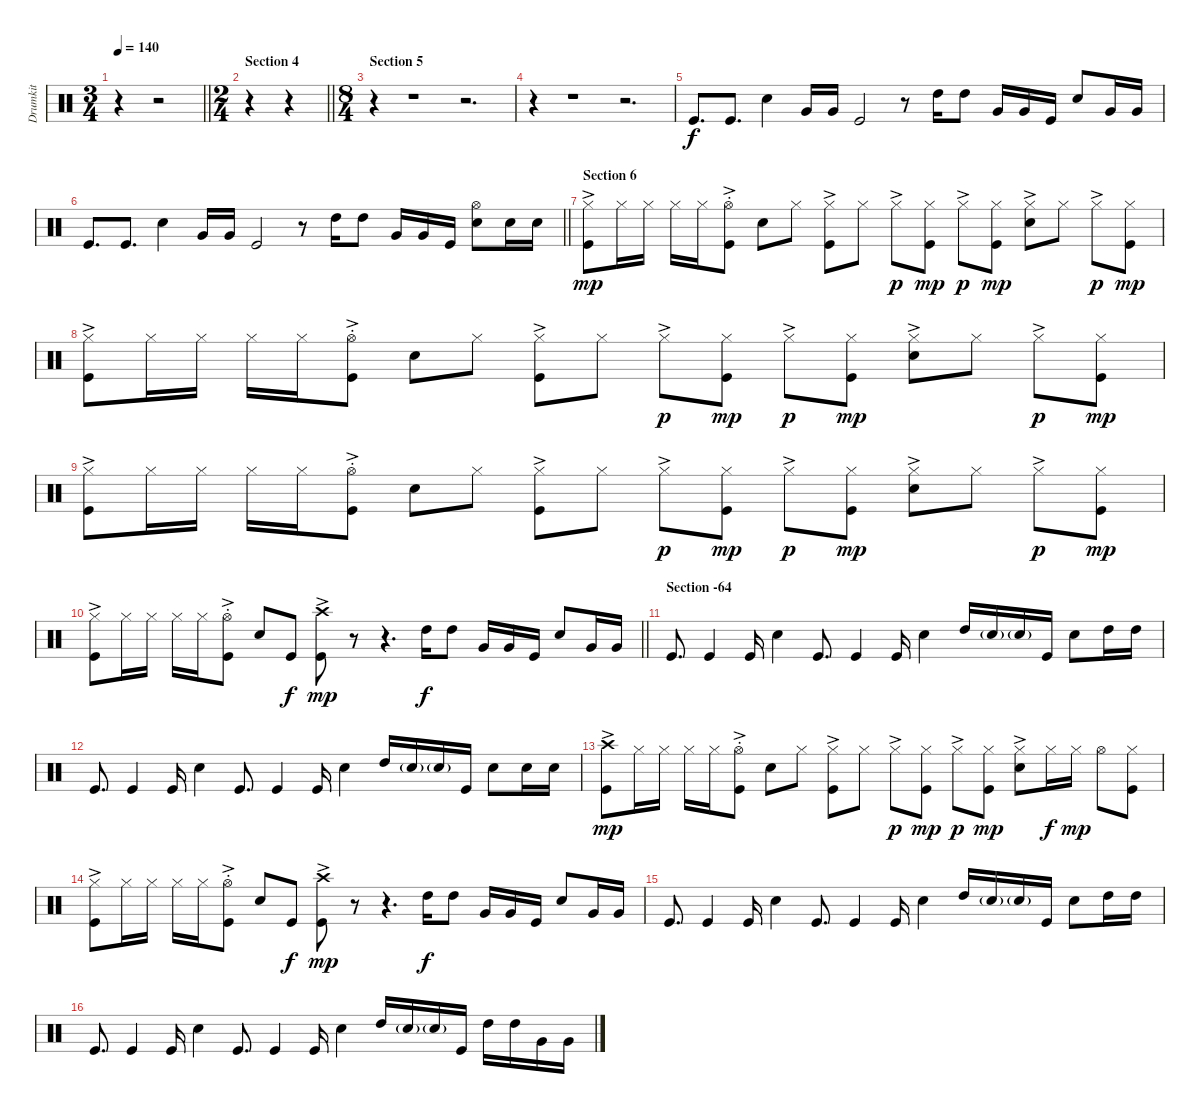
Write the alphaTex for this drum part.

\track ("Drumkit" "Drumkit") {instrument percussion}
\staff {score}
\articulation defaults
\ts (3 4)
\tempo 140
\clef neutral
\barLineRight lightlight
\ks c
r.4{dy f} r.2 |
\ts (2 4)
\section ("" "Section 4")
\barLineRight lightlight
r.4 r.4 |
\ts (8 4)
\section ("" "Section 5")
r.4 r.1 r.2{d} |
r.4 r.1 r.2{d} |
"Kick (hit)".8{d} "Kick (hit)".8{d} "Snare (hit) 2".4 "Very Low Tom (hit)".16 "Very Low Tom (hit)".16 "Kick (hit)".2 r.8 "High Tom (hit)".16 "High Tom (hit)".8 "Very Low Tom (hit)".16 "Very Low Tom (hit)".16 "Kick (hit)".16 "Snare (hit) 2".8 "Very Low Tom (hit)".16 "Very Low Tom (hit)".16 |
\barLineRight lightlight "Kick (hit)".8{d} "Kick (hit)".8{d} "Snare (hit) 2".4 "Very Low Tom (hit)".16 "Very Low Tom (hit)".16 "Kick (hit)".2
r.8 "High Tom (hit)".16 "High Tom (hit)".8 "Very Low Tom (hit)".16 "Very Low Tom (hit)".16 "Kick (hit)".16 ("Snare (hit) 2" "Hi-Hat (open)").8 "Snare (hit) 2".16 "Snare (hit) 2".16 |
\section ("" "Section 6")
("Kick (hit)" "Hi-Hat (closed)"{ac}).8{dy mp} "Hi-Hat (closed)".16 "Hi-Hat (closed)".16 "Hi-Hat (closed)".16 "Hi-Hat (closed)".16 ("Kick (hit)" "Hi-Hat (open)"{ac st}).8 "Snare (hit) 2".8 "Hi-Hat (closed)".8 ("Kick (hit)" "Hi-Hat (closed)"{ac}).8 "Hi-Hat (closed)".8 "Hi-Hat (closed)"{ac}.8{dy p} ("Kick (hit)" "Hi-Hat (closed)").8{dy mp} "Hi-Hat (closed)"{ac}.8{dy p} ("Kick (hit)" "Hi-Hat (closed)").8{dy mp} ("Snare (hit) 2" "Hi-Hat (closed)"{ac}).8 "Hi-Hat (closed)".8 "Hi-Hat (closed)"{ac}.8{dy p} ("Kick (hit)" "Hi-Hat (closed)").8{dy mp} |
("Kick (hit)" "Hi-Hat (closed)"{ac}).8 "Hi-Hat (closed)".16 "Hi-Hat (closed)".16 "Hi-Hat (closed)".16 "Hi-Hat (closed)".16 ("Kick (hit)" "Hi-Hat (open)"{ac st}).8 "Snare (hit) 2".8 "Hi-Hat (closed)".8 ("Kick (hit)" "Hi-Hat (closed)"{ac}).8 "Hi-Hat (closed)".8 "Hi-Hat (closed)"{ac}.8{dy p} ("Kick (hit)" "Hi-Hat (closed)").8{dy mp} "Hi-Hat (closed)"{ac}.8{dy p} ("Kick (hit)" "Hi-Hat (closed)").8{dy mp} ("Snare (hit) 2" "Hi-Hat (closed)"{ac}).8 "Hi-Hat (closed)".8 "Hi-Hat (closed)"{ac}.8{dy p} ("Kick (hit)" "Hi-Hat (closed)").8{dy mp} |
("Kick (hit)" "Hi-Hat (closed)"{ac}).8 "Hi-Hat (closed)".16 "Hi-Hat (closed)".16 "Hi-Hat (closed)".16 "Hi-Hat (closed)".16 ("Kick (hit)" "Hi-Hat (open)"{ac st}).8 "Snare (hit) 2".8 "Hi-Hat (closed)".8 ("Kick (hit)" "Hi-Hat (closed)"{ac}).8 "Hi-Hat (closed)".8 "Hi-Hat (closed)"{ac}.8{dy p} ("Kick (hit)" "Hi-Hat (closed)").8{dy mp} "Hi-Hat (closed)"{ac}.8{dy p} ("Kick (hit)" "Hi-Hat (closed)").8{dy mp} ("Snare (hit) 2" "Hi-Hat (closed)"{ac}).8 "Hi-Hat (closed)".8 "Hi-Hat (closed)"{ac}.8{dy p} ("Kick (hit)" "Hi-Hat (closed)").8{dy mp} |
\barLineRight lightlight
("Kick (hit)" "Hi-Hat (closed)"{ac}).8 "Hi-Hat (closed)".16 "Hi-Hat (closed)".16 "Hi-Hat (closed)".16 "Hi-Hat (closed)".16 ("Kick (hit)" "Hi-Hat (open)"{ac st}).8 "Snare (hit) 2".8 "Kick (hit)".8{dy f} ("Kick (hit)" "Crash high (hit)"{ac}).8{dy mp} r.8 r.4{d} "High Tom (hit)".16{dy f} "High Tom (hit)".8 "Very Low Tom (hit)".16 "Very Low Tom (hit)".16 "Kick (hit)".16 "Snare (hit) 2".8 "Very Low Tom (hit)".16 "Very Low Tom (hit)".16 |
\section ("" "Section -64")
"Kick (hit)".8{d} "Kick (hit)".4 "Kick (hit)".16 "Snare (hit) 2".4 "Kick (hit)".8{d} "Kick (hit)".4 "Kick (hit)".16 "Snare (hit) 2".4 "High Tom (hit)".16 "Snare (hit) 2"{g}.16 "Snare (hit) 2"{g}.16 "Kick (hit)".16 "Snare (hit) 2".8 "High Tom (hit)".16 "High Tom (hit)".16 |
"Kick (hit)".8{d} "Kick (hit)".4 "Kick (hit)".16 "Snare (hit) 2".4 "Kick (hit)".8{d} "Kick (hit)".4 "Kick (hit)".16 "Snare (hit) 2".4 "High Tom (hit)".16 "Snare (hit) 2"{g}.16 "Snare (hit) 2"{g}.16 "Kick (hit)".16 "Snare (hit) 2".8 "Snare (hit) 2".16 "Snare (hit) 2".16 |
("Kick (hit)" "Crash high (hit)"{ac}).8{dy mp} "Hi-Hat (closed)".16 "Hi-Hat (closed)".16 "Hi-Hat (closed)".16 "Hi-Hat (closed)".16 ("Kick (hit)" "Hi-Hat (open)"{ac st}).8 "Snare (hit) 2".8 "Hi-Hat (closed)".8 ("Kick (hit)" "Hi-Hat (closed)"{ac}).8 "Hi-Hat (closed)".8 "Hi-Hat (closed)"{ac}.8{dy p} ("Kick (hit)" "Hi-Hat (closed)").8{dy mp} "Hi-Hat (closed)"{ac}.8{dy p} ("Kick (hit)" "Hi-Hat (closed)").8{dy mp} ("Snare (hit) 2" "Hi-Hat (closed)"{ac}).8 "Hi-Hat (closed)".16{dy f} "Hi-Hat (closed)".16{dy mp} "Hi-Hat (open)".8 ("Kick (hit)" "Hi-Hat (closed)").8 |
("Kick (hit)" "Hi-Hat (closed)"{ac}).8 "Hi-Hat (closed)".16 "Hi-Hat (closed)".16 "Hi-Hat (closed)".16 "Hi-Hat (closed)".16 ("Kick (hit)" "Hi-Hat (open)"{ac st}).8 "Snare (hit) 2".8 "Kick (hit)".8{dy f} ("Kick (hit)" "Crash high (hit)"{ac}).8{dy mp} r.8 r.4{d} "High Tom (hit)".16{dy f} "High Tom (hit)".8 "Very Low Tom (hit)".16 "Very Low Tom (hit)".16 "Kick (hit)".16 "Snare (hit) 2".8 "Very Low Tom (hit)".16 "Very Low Tom (hit)".16 |
"Kick (hit)".8{d} "Kick (hit)".4 "Kick (hit)".16 "Snare (hit) 2".4 "Kick (hit)".8{d} "Kick (hit)".4 "Kick (hit)".16 "Snare (hit) 2".4 "High Tom (hit)".16 "Snare (hit) 2"{g}.16 "Snare (hit) 2"{g}.16 "Kick (hit)".16 "Snare (hit) 2".8 "High Tom (hit)".16 "High Tom (hit)".16 |
"Kick (hit)".8{d} "Kick (hit)".4 "Kick (hit)".16 "Snare (hit) 2".4 "Kick (hit)".8{d} "Kick (hit)".4 "Kick (hit)".16 "Snare (hit) 2".4 "High Tom (hit)".16 "Snare (hit) 2"{g}.16 "Snare (hit) 2"{g}.16 "Kick (hit)".16 "High Tom (hit)".16 "High Tom (hit)".16 "Very Low Tom (hit)".16 "Very Low Tom (hit)".16
